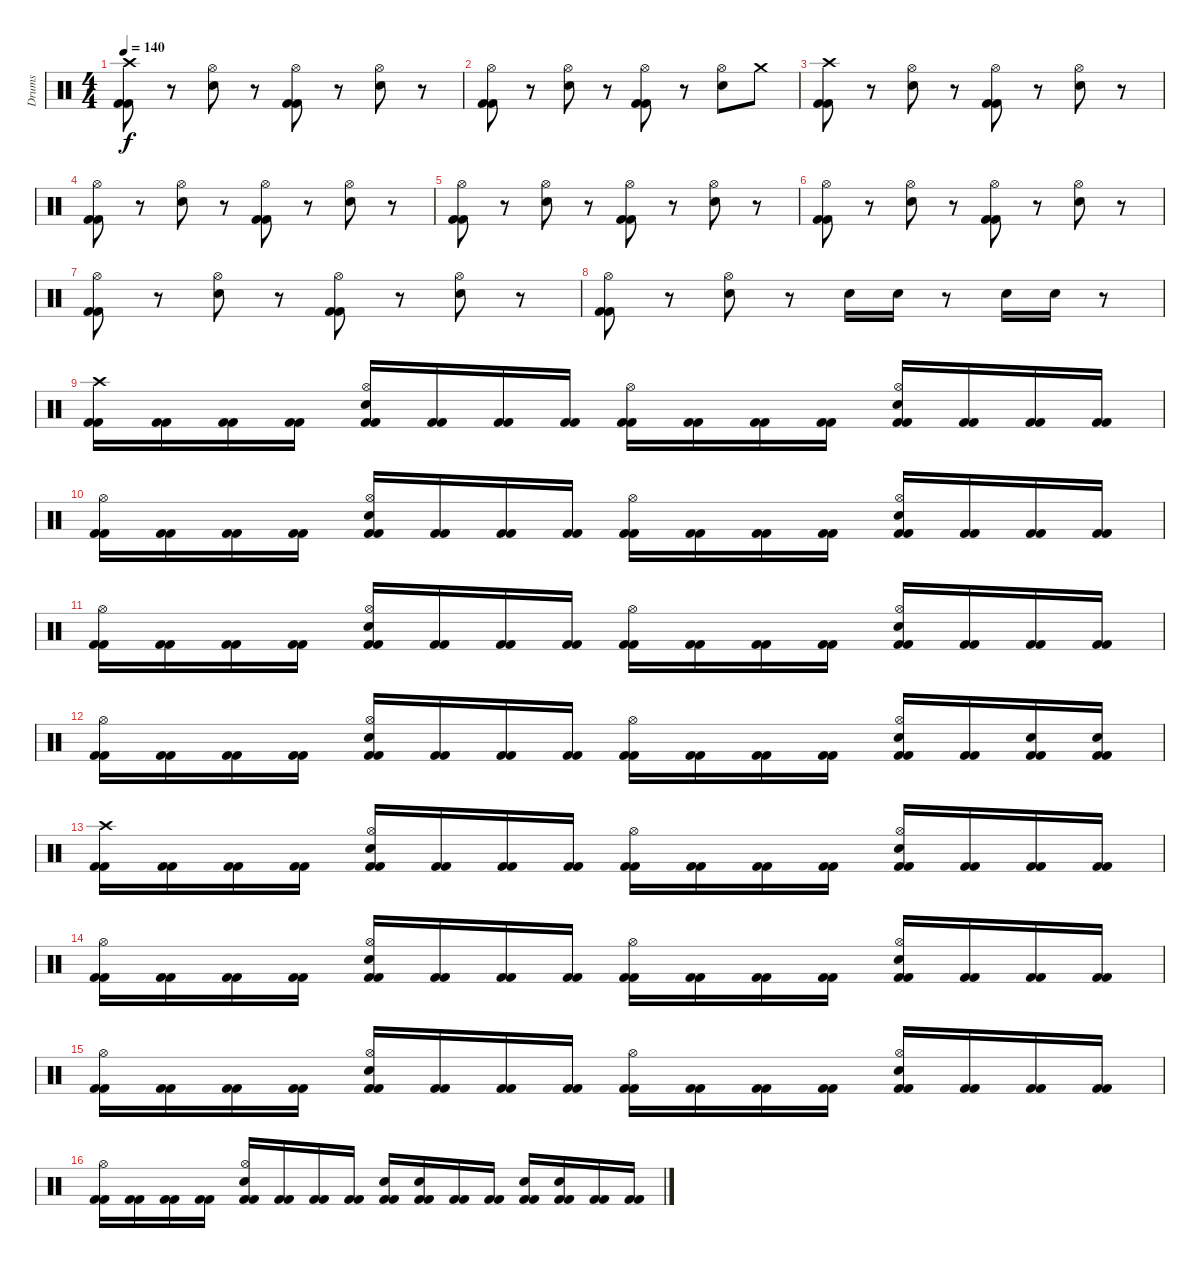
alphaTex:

\track ("Drums" "Drums") {instrument percussion}
\staff {score}
\articulation defaults
\ts (4 4)
\tempo 140
\clef neutral
\ks c
("Crash high (hit)" "Kick (hit) 2" "Kick (hit) 2").8{dy f} r.8 ("Hi-Hat (open)" "Electric Snare (hit)").8 r.8 ("Hi-Hat (open)" "Kick (hit) 2" "Kick (hit) 2").8 r.8 ("Hi-Hat (open)" "Electric Snare (hit)").8 r.8 |
("Hi-Hat (open)" "Kick (hit) 2" "Kick (hit) 2").8 r.8 ("Hi-Hat (open)" "Electric Snare (hit)").8 r.8 ("Hi-Hat (open)" "Kick (hit) 2" "Kick (hit) 2").8 r.8 ("Hi-Hat (open)" "Electric Snare (hit)").8 "Crash medium (hit)".8 |
("Crash high (hit)" "Kick (hit) 2" "Kick (hit) 2").8 r.8 ("Hi-Hat (open)" "Electric Snare (hit)").8 r.8 ("Hi-Hat (open)" "Kick (hit) 2" "Kick (hit) 2").8 r.8 ("Hi-Hat (open)" "Electric Snare (hit)").8 r.8 |
("Hi-Hat (open)" "Kick (hit) 2" "Kick (hit) 2").8 r.8 ("Hi-Hat (open)" "Electric Snare (hit)").8 r.8 ("Hi-Hat (open)" "Kick (hit) 2" "Kick (hit) 2").8 r.8 ("Hi-Hat (open)" "Electric Snare (hit)").8 r.8 |
("Hi-Hat (open)" "Kick (hit) 2" "Kick (hit) 2").8 r.8 ("Hi-Hat (open)" "Electric Snare (hit)").8 r.8 ("Hi-Hat (open)" "Kick (hit) 2" "Kick (hit) 2").8 r.8 ("Hi-Hat (open)" "Electric Snare (hit)").8 r.8 |
("Hi-Hat (open)" "Kick (hit) 2" "Kick (hit) 2").8 r.8 ("Hi-Hat (open)" "Electric Snare (hit)").8 r.8 ("Hi-Hat (open)" "Kick (hit) 2" "Kick (hit) 2").8 r.8 ("Hi-Hat (open)" "Electric Snare (hit)").8 r.8 |
("Hi-Hat (open)" "Kick (hit) 2" "Kick (hit) 2").8 r.8 ("Hi-Hat (open)" "Electric Snare (hit)").8 r.8 ("Hi-Hat (open)" "Kick (hit) 2" "Kick (hit) 2").8 r.8 ("Hi-Hat (open)" "Electric Snare (hit)").8 r.8 |
("Hi-Hat (open)" "Kick (hit) 2" "Kick (hit) 2").8 r.8 ("Hi-Hat (open)" "Electric Snare (hit)").8 r.8 "Electric Snare (hit)".16 "Electric Snare (hit)".16 r.8 "Electric Snare (hit)".16 "Electric Snare (hit)".16 r.8 |
("Crash high (hit)" "Kick (hit) 2" "Kick (hit) 2").16 ("Kick (hit) 2" "Kick (hit) 2").16 ("Kick (hit) 2" "Kick (hit) 2").16 ("Kick (hit) 2" "Kick (hit) 2").16 ("Hi-Hat (open)" "Electric Snare (hit)" "Kick (hit) 2" "Kick (hit) 2").16 ("Kick (hit) 2" "Kick (hit) 2").16 ("Kick (hit) 2" "Kick (hit) 2").16 ("Kick (hit) 2" "Kick (hit) 2").16 ("Hi-Hat (open)" "Kick (hit) 2" "Kick (hit) 2").16 ("Kick (hit) 2" "Kick (hit) 2").16 ("Kick (hit) 2" "Kick (hit) 2").16 ("Kick (hit) 2" "Kick (hit) 2").16 ("Hi-Hat (open)" "Electric Snare (hit)" "Kick (hit) 2" "Kick (hit) 2").16 ("Kick (hit) 2" "Kick (hit) 2").16 ("Kick (hit) 2" "Kick (hit) 2").16 ("Kick (hit) 2" "Kick (hit) 2").16 |
("Hi-Hat (open)" "Kick (hit) 2" "Kick (hit) 2").16 ("Kick (hit) 2" "Kick (hit) 2").16 ("Kick (hit) 2" "Kick (hit) 2").16 ("Kick (hit) 2" "Kick (hit) 2").16 ("Hi-Hat (open)" "Electric Snare (hit)" "Kick (hit) 2" "Kick (hit) 2").16 ("Kick (hit) 2" "Kick (hit) 2").16 ("Kick (hit) 2" "Kick (hit) 2").16 ("Kick (hit) 2" "Kick (hit) 2").16 ("Hi-Hat (open)" "Kick (hit) 2" "Kick (hit) 2").16 ("Kick (hit) 2" "Kick (hit) 2").16 ("Kick (hit) 2" "Kick (hit) 2").16 ("Kick (hit) 2" "Kick (hit) 2").16 ("Hi-Hat (open)" "Electric Snare (hit)" "Kick (hit) 2" "Kick (hit) 2").16 ("Kick (hit) 2" "Kick (hit) 2").16 ("Kick (hit) 2" "Kick (hit) 2").16 ("Kick (hit) 2" "Kick (hit) 2").16 |
("Hi-Hat (open)" "Kick (hit) 2" "Kick (hit) 2").16 ("Kick (hit) 2" "Kick (hit) 2").16 ("Kick (hit) 2" "Kick (hit) 2").16 ("Kick (hit) 2" "Kick (hit) 2").16 ("Hi-Hat (open)" "Electric Snare (hit)" "Kick (hit) 2" "Kick (hit) 2").16 ("Kick (hit) 2" "Kick (hit) 2").16 ("Kick (hit) 2" "Kick (hit) 2").16 ("Kick (hit) 2" "Kick (hit) 2").16 ("Hi-Hat (open)" "Kick (hit) 2" "Kick (hit) 2").16 ("Kick (hit) 2" "Kick (hit) 2").16 ("Kick (hit) 2" "Kick (hit) 2").16 ("Kick (hit) 2" "Kick (hit) 2").16 ("Hi-Hat (open)" "Electric Snare (hit)" "Kick (hit) 2" "Kick (hit) 2").16 ("Kick (hit) 2" "Kick (hit) 2").16 ("Kick (hit) 2" "Kick (hit) 2").16 ("Kick (hit) 2" "Kick (hit) 2").16 |
("Hi-Hat (open)" "Kick (hit) 2" "Kick (hit) 2").16 ("Kick (hit) 2" "Kick (hit) 2").16 ("Kick (hit) 2" "Kick (hit) 2").16 ("Kick (hit) 2" "Kick (hit) 2").16 ("Hi-Hat (open)" "Electric Snare (hit)" "Kick (hit) 2" "Kick (hit) 2").16 ("Kick (hit) 2" "Kick (hit) 2").16 ("Kick (hit) 2" "Kick (hit) 2").16 ("Kick (hit) 2" "Kick (hit) 2").16 ("Hi-Hat (open)" "Kick (hit) 2" "Kick (hit) 2").16 ("Kick (hit) 2" "Kick (hit) 2").16 ("Kick (hit) 2" "Kick (hit) 2").16 ("Kick (hit) 2" "Kick (hit) 2").16 ("Hi-Hat (open)" "Electric Snare (hit)" "Kick (hit) 2" "Kick (hit) 2").16 ("Kick (hit) 2" "Kick (hit) 2").16 ("Electric Snare (hit)" "Kick (hit) 2" "Kick (hit) 2").16 ("Electric Snare (hit)" "Kick (hit) 2" "Kick (hit) 2").16 |
("Crash high (hit)" "Kick (hit) 2" "Kick (hit) 2").16 ("Kick (hit) 2" "Kick (hit) 2").16 ("Kick (hit) 2" "Kick (hit) 2").16 ("Kick (hit) 2" "Kick (hit) 2").16 ("Hi-Hat (open)" "Electric Snare (hit)" "Kick (hit) 2" "Kick (hit) 2").16 ("Kick (hit) 2" "Kick (hit) 2").16 ("Kick (hit) 2" "Kick (hit) 2").16 ("Kick (hit) 2" "Kick (hit) 2").16 ("Hi-Hat (open)" "Kick (hit) 2" "Kick (hit) 2").16 ("Kick (hit) 2" "Kick (hit) 2").16 ("Kick (hit) 2" "Kick (hit) 2").16 ("Kick (hit) 2" "Kick (hit) 2").16 ("Hi-Hat (open)" "Electric Snare (hit)" "Kick (hit) 2" "Kick (hit) 2").16 ("Kick (hit) 2" "Kick (hit) 2").16 ("Kick (hit) 2" "Kick (hit) 2").16 ("Kick (hit) 2" "Kick (hit) 2").16 |
("Hi-Hat (open)" "Kick (hit) 2" "Kick (hit) 2").16 ("Kick (hit) 2" "Kick (hit) 2").16 ("Kick (hit) 2" "Kick (hit) 2").16 ("Kick (hit) 2" "Kick (hit) 2").16 ("Hi-Hat (open)" "Electric Snare (hit)" "Kick (hit) 2" "Kick (hit) 2").16 ("Kick (hit) 2" "Kick (hit) 2").16 ("Kick (hit) 2" "Kick (hit) 2").16 ("Kick (hit) 2" "Kick (hit) 2").16 ("Hi-Hat (open)" "Kick (hit) 2" "Kick (hit) 2").16 ("Kick (hit) 2" "Kick (hit) 2").16 ("Kick (hit) 2" "Kick (hit) 2").16 ("Kick (hit) 2" "Kick (hit) 2").16 ("Hi-Hat (open)" "Electric Snare (hit)" "Kick (hit) 2" "Kick (hit) 2").16 ("Kick (hit) 2" "Kick (hit) 2").16 ("Kick (hit) 2" "Kick (hit) 2").16 ("Kick (hit) 2" "Kick (hit) 2").16 |
("Hi-Hat (open)" "Kick (hit) 2" "Kick (hit) 2").16 ("Kick (hit) 2" "Kick (hit) 2").16 ("Kick (hit) 2" "Kick (hit) 2").16 ("Kick (hit) 2" "Kick (hit) 2").16 ("Hi-Hat (open)" "Electric Snare (hit)" "Kick (hit) 2" "Kick (hit) 2").16 ("Kick (hit) 2" "Kick (hit) 2").16 ("Kick (hit) 2" "Kick (hit) 2").16 ("Kick (hit) 2" "Kick (hit) 2").16 ("Hi-Hat (open)" "Kick (hit) 2" "Kick (hit) 2").16 ("Kick (hit) 2" "Kick (hit) 2").16 ("Kick (hit) 2" "Kick (hit) 2").16 ("Kick (hit) 2" "Kick (hit) 2").16 ("Hi-Hat (open)" "Electric Snare (hit)" "Kick (hit) 2" "Kick (hit) 2").16 ("Kick (hit) 2" "Kick (hit) 2").16 ("Kick (hit) 2" "Kick (hit) 2").16 ("Kick (hit) 2" "Kick (hit) 2").16 |
("Hi-Hat (open)" "Kick (hit) 2" "Kick (hit) 2").16 ("Kick (hit) 2" "Kick (hit) 2").16 ("Kick (hit) 2" "Kick (hit) 2").16 ("Kick (hit) 2" "Kick (hit) 2").16 ("Hi-Hat (open)" "Electric Snare (hit)" "Kick (hit) 2" "Kick (hit) 2").16 ("Kick (hit) 2" "Kick (hit) 2").16 ("Kick (hit) 2" "Kick (hit) 2").16 ("Kick (hit) 2" "Kick (hit) 2").16 ("Electric Snare (hit)" "Kick (hit) 2" "Kick (hit) 2").16 ("Electric Snare (hit)" "Kick (hit) 2" "Kick (hit) 2").16 ("Kick (hit) 2" "Kick (hit) 2").16 ("Kick (hit) 2" "Kick (hit) 2").16 ("Electric Snare (hit)" "Kick (hit) 2" "Kick (hit) 2").16 ("Electric Snare (hit)" "Kick (hit) 2" "Kick (hit) 2").16 ("Kick (hit) 2" "Kick (hit) 2").16 ("Kick (hit) 2" "Kick (hit) 2").16
